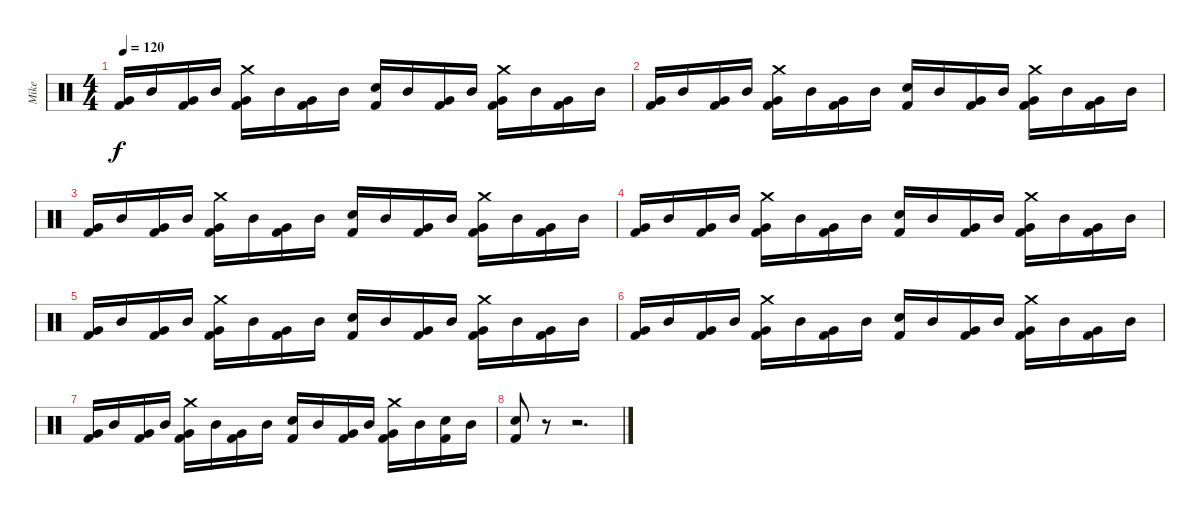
\track ("Mike" "Mike") {instrument percussion}
\staff {score}
\articulation defaults
\ts (4 4)
\tempo 120
\clef neutral
\ks c
("Very Low Tom (hit)" "Kick (hit) 2").16{dy f} "Mid Tom (hit)".16 ("Very Low Tom (hit)" "Kick (hit) 2").16 "Mid Tom (hit)".16 ("Crash medium (hit)" "Very Low Tom (hit)" "Kick (hit) 2").16 "Mid Tom (hit)".16 ("Very Low Tom (hit)" "Kick (hit) 2").16 "Mid Tom (hit)".16 ("Snare (hit) 2" "Kick (hit) 2").16 "Mid Tom (hit)".16 ("Very Low Tom (hit)" "Kick (hit) 2").16 "Mid Tom (hit)".16 ("Crash medium (hit)" "Very Low Tom (hit)" "Kick (hit) 2").16 "Mid Tom (hit)".16 ("Very Low Tom (hit)" "Kick (hit) 2").16 "Mid Tom (hit)".16 |
("Very Low Tom (hit)" "Kick (hit) 2").16 "Mid Tom (hit)".16 ("Very Low Tom (hit)" "Kick (hit) 2").16 "Mid Tom (hit)".16 ("Crash medium (hit)" "Very Low Tom (hit)" "Kick (hit) 2").16 "Mid Tom (hit)".16 ("Very Low Tom (hit)" "Kick (hit) 2").16 "Mid Tom (hit)".16 ("Snare (hit) 2" "Kick (hit) 2").16 "Mid Tom (hit)".16 ("Very Low Tom (hit)" "Kick (hit) 2").16 "Mid Tom (hit)".16 ("Crash medium (hit)" "Very Low Tom (hit)" "Kick (hit) 2").16 "Mid Tom (hit)".16 ("Very Low Tom (hit)" "Kick (hit) 2").16 "Mid Tom (hit)".16 |
("Very Low Tom (hit)" "Kick (hit) 2").16 "Mid Tom (hit)".16 ("Very Low Tom (hit)" "Kick (hit) 2").16 "Mid Tom (hit)".16 ("Crash medium (hit)" "Very Low Tom (hit)" "Kick (hit) 2").16 "Mid Tom (hit)".16 ("Very Low Tom (hit)" "Kick (hit) 2").16 "Mid Tom (hit)".16 ("Snare (hit) 2" "Kick (hit) 2").16 "Mid Tom (hit)".16 ("Very Low Tom (hit)" "Kick (hit) 2").16 "Mid Tom (hit)".16 ("Crash medium (hit)" "Very Low Tom (hit)" "Kick (hit) 2").16 "Mid Tom (hit)".16 ("Very Low Tom (hit)" "Kick (hit) 2").16 "Mid Tom (hit)".16 |
("Very Low Tom (hit)" "Kick (hit) 2").16 "Mid Tom (hit)".16 ("Very Low Tom (hit)" "Kick (hit) 2").16 "Mid Tom (hit)".16 ("Crash medium (hit)" "Very Low Tom (hit)" "Kick (hit) 2").16 "Mid Tom (hit)".16 ("Very Low Tom (hit)" "Kick (hit) 2").16 "Mid Tom (hit)".16 ("Snare (hit) 2" "Kick (hit) 2").16 "Mid Tom (hit)".16 ("Very Low Tom (hit)" "Kick (hit) 2").16 "Mid Tom (hit)".16 ("Crash medium (hit)" "Very Low Tom (hit)" "Kick (hit) 2").16 "Mid Tom (hit)".16 ("Very Low Tom (hit)" "Kick (hit) 2").16 "Mid Tom (hit)".16 |
("Very Low Tom (hit)" "Kick (hit) 2").16 "Mid Tom (hit)".16 ("Very Low Tom (hit)" "Kick (hit) 2").16 "Mid Tom (hit)".16 ("Crash medium (hit)" "Very Low Tom (hit)" "Kick (hit) 2").16 "Mid Tom (hit)".16 ("Very Low Tom (hit)" "Kick (hit) 2").16 "Mid Tom (hit)".16 ("Snare (hit) 2" "Kick (hit) 2").16 "Mid Tom (hit)".16 ("Very Low Tom (hit)" "Kick (hit) 2").16 "Mid Tom (hit)".16 ("Crash medium (hit)" "Very Low Tom (hit)" "Kick (hit) 2").16 "Mid Tom (hit)".16 ("Very Low Tom (hit)" "Kick (hit) 2").16 "Mid Tom (hit)".16 |
("Very Low Tom (hit)" "Kick (hit) 2").16 "Mid Tom (hit)".16 ("Very Low Tom (hit)" "Kick (hit) 2").16 "Mid Tom (hit)".16 ("Crash medium (hit)" "Very Low Tom (hit)" "Kick (hit) 2").16 "Mid Tom (hit)".16 ("Very Low Tom (hit)" "Kick (hit) 2").16 "Mid Tom (hit)".16 ("Snare (hit) 2" "Kick (hit) 2").16 "Mid Tom (hit)".16 ("Very Low Tom (hit)" "Kick (hit) 2").16 "Mid Tom (hit)".16 ("Crash medium (hit)" "Very Low Tom (hit)" "Kick (hit) 2").16 "Mid Tom (hit)".16 ("Very Low Tom (hit)" "Kick (hit) 2").16 "Mid Tom (hit)".16 |
("Very Low Tom (hit)" "Kick (hit) 2").16 "Mid Tom (hit)".16 ("Very Low Tom (hit)" "Kick (hit) 2").16 "Mid Tom (hit)".16 ("Crash medium (hit)" "Very Low Tom (hit)" "Kick (hit) 2").16 "Mid Tom (hit)".16 ("Very Low Tom (hit)" "Kick (hit) 2").16 "Mid Tom (hit)".16 ("Snare (hit) 2" "Kick (hit) 2").16 "Mid Tom (hit)".16 ("Very Low Tom (hit)" "Kick (hit) 2").16 "Mid Tom (hit)".16 ("Crash medium (hit)" "Very Low Tom (hit)" "Kick (hit) 2").16 "Mid Tom (hit)".16 ("Snare (hit) 2" "Kick (hit) 2").16 "Mid Tom (hit)".16 |
("Snare (hit) 2" "Kick (hit) 2").8 r.8 r.2{d}
